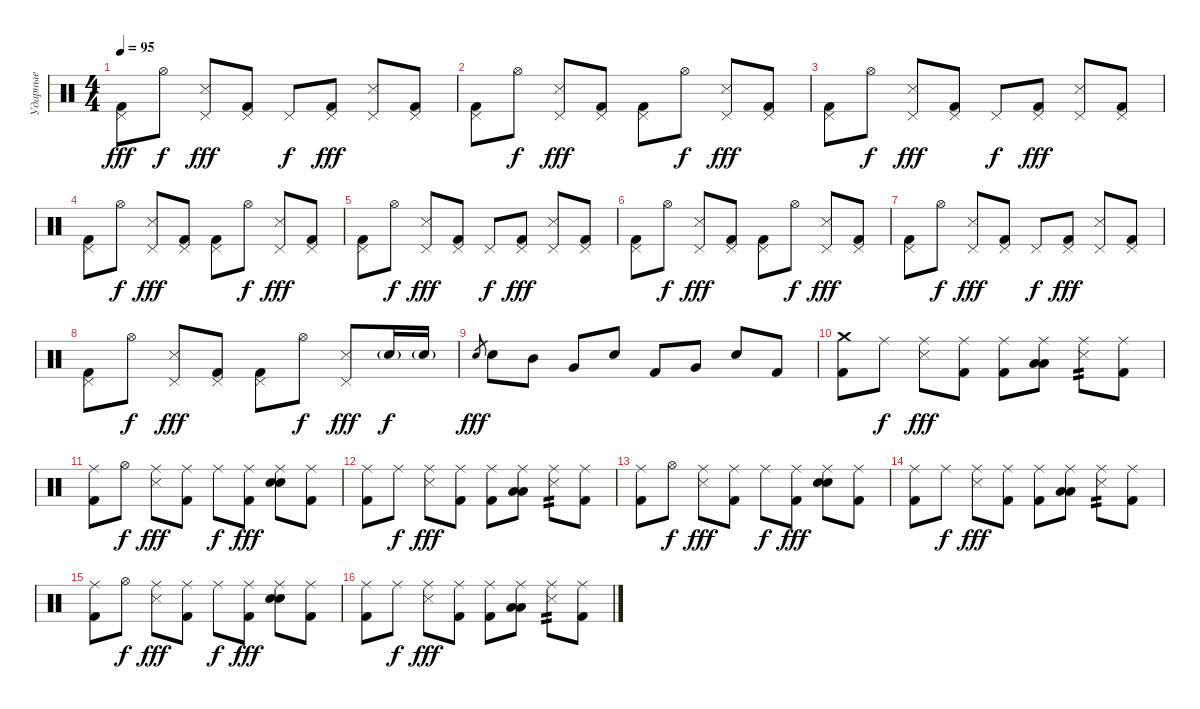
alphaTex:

\track ("Ударные" "Ударные") {instrument percussion}
\staff {score}
\articulation defaults
\ts (4 4)
\tempo 95
\clef neutral
\ks c
("Pedal Hi-Hat (hit)" "Kick (hit) 2").8{dy fff} "Hi-Hat (open)".8{dy f} ("Pedal Hi-Hat (hit)" "Snare (side stick) 3").8{dy fff} ("Pedal Hi-Hat (hit)" "Kick (hit) 2").8 "Pedal Hi-Hat (hit)".8{dy f} ("Pedal Hi-Hat (hit)" "Kick (hit) 2").8{dy fff} ("Pedal Hi-Hat (hit)" "Snare (side stick) 3").8 ("Pedal Hi-Hat (hit)" "Kick (hit) 2").8 |
("Pedal Hi-Hat (hit)" "Kick (hit) 2").8 "Hi-Hat (open)".8{dy f} ("Pedal Hi-Hat (hit)" "Snare (side stick) 3").8{dy fff} ("Pedal Hi-Hat (hit)" "Kick (hit) 2").8 ("Pedal Hi-Hat (hit)" "Kick (hit) 2").8 "Hi-Hat (open)".8{dy f} ("Pedal Hi-Hat (hit)" "Snare (side stick) 3").8{dy fff} ("Pedal Hi-Hat (hit)" "Kick (hit) 2").8 |
("Pedal Hi-Hat (hit)" "Kick (hit) 2").8 "Hi-Hat (open)".8{dy f} ("Pedal Hi-Hat (hit)" "Snare (side stick) 3").8{dy fff} ("Pedal Hi-Hat (hit)" "Kick (hit) 2").8 "Pedal Hi-Hat (hit)".8{dy f} ("Pedal Hi-Hat (hit)" "Kick (hit) 2").8{dy fff} ("Pedal Hi-Hat (hit)" "Snare (side stick) 3").8 ("Pedal Hi-Hat (hit)" "Kick (hit) 2").8 |
("Pedal Hi-Hat (hit)" "Kick (hit) 2").8 "Hi-Hat (open)".8{dy f} ("Pedal Hi-Hat (hit)" "Snare (side stick) 3").8{dy fff} ("Pedal Hi-Hat (hit)" "Kick (hit) 2").8 ("Pedal Hi-Hat (hit)" "Kick (hit) 2").8 "Hi-Hat (open)".8{dy f} ("Pedal Hi-Hat (hit)" "Snare (side stick) 3").8{dy fff} ("Pedal Hi-Hat (hit)" "Kick (hit) 2").8 |
("Pedal Hi-Hat (hit)" "Kick (hit) 2").8 "Hi-Hat (open)".8{dy f} ("Pedal Hi-Hat (hit)" "Snare (side stick) 3").8{dy fff} ("Pedal Hi-Hat (hit)" "Kick (hit) 2").8 "Pedal Hi-Hat (hit)".8{dy f} ("Pedal Hi-Hat (hit)" "Kick (hit) 2").8{dy fff} ("Pedal Hi-Hat (hit)" "Snare (side stick) 3").8 ("Pedal Hi-Hat (hit)" "Kick (hit) 2").8 |
("Pedal Hi-Hat (hit)" "Kick (hit) 2").8 "Hi-Hat (open)".8{dy f} ("Pedal Hi-Hat (hit)" "Snare (side stick) 3").8{dy fff} ("Pedal Hi-Hat (hit)" "Kick (hit) 2").8 ("Pedal Hi-Hat (hit)" "Kick (hit) 2").8 "Hi-Hat (open)".8{dy f} ("Pedal Hi-Hat (hit)" "Snare (side stick) 3").8{dy fff} ("Pedal Hi-Hat (hit)" "Kick (hit) 2").8 |
("Pedal Hi-Hat (hit)" "Kick (hit) 2").8 "Hi-Hat (open)".8{dy f} ("Pedal Hi-Hat (hit)" "Snare (side stick) 3").8{dy fff} ("Pedal Hi-Hat (hit)" "Kick (hit) 2").8 "Pedal Hi-Hat (hit)".8{dy f} ("Pedal Hi-Hat (hit)" "Kick (hit) 2").8{dy fff} ("Pedal Hi-Hat (hit)" "Snare (side stick) 3").8 ("Pedal Hi-Hat (hit)" "Kick (hit) 2").8 |
("Pedal Hi-Hat (hit)" "Kick (hit) 2").8 "Hi-Hat (open)".8{dy f} ("Pedal Hi-Hat (hit)" "Snare (side stick) 3").8{dy fff} ("Pedal Hi-Hat (hit)" "Kick (hit) 2").8 ("Pedal Hi-Hat (hit)" "Kick (hit) 2").8 "Hi-Hat (open)".8{dy f} ("Pedal Hi-Hat (hit)" "Snare (side stick) 3").8{dy fff} "Electric Snare (hit)"{g}.16{dy f} "Electric Snare (hit)"{g}.16 |
"Electric Snare (hit)".8{gr dy fff} "Electric Snare (hit)".8 "Mid Tom (hit)".8 "Very Low Tom (hit)".8 "Electric Snare (hit)".8 "Kick (hit) 2".8 "Very Low Tom (hit)".8 "Electric Snare (hit)".8 "Kick (hit) 2".8 |
("Crash medium (hit)" "Kick (hit) 2").8 "Ride (middle)".8{dy f} ("Ride (middle)" "Snare (side stick) 3").8{dy fff} ("Ride (middle)" "Kick (hit) 2").8 ("Ride (middle)" "Kick (hit) 2").8 ("Ride (middle)" "Low Tom (hit)" "Low Floor Tom (hit)").8 ("Ride (middle)" "Snare (side stick) 3").8{tp 2} ("Ride (middle)" "Kick (hit) 2").8 |
("Ride (middle)" "Kick (hit) 2").8 "Hi-Hat (open)".8{dy f} ("Ride (middle)" "Snare (side stick) 3").8{dy fff} ("Ride (middle)" "Kick (hit) 2").8 "Ride (middle)".8{dy f} ("Ride (middle)" "Kick (hit) 2").8{dy fff} ("Ride (middle)" "Electric Snare (hit)" "Snare (hit) 2").8 ("Ride (middle)" "Kick (hit) 2").8 |
("Ride (middle)" "Kick (hit) 2").8 "Ride (middle)".8{dy f} ("Ride (middle)" "Snare (side stick) 3").8{dy fff} ("Ride (middle)" "Kick (hit) 2").8 ("Ride (middle)" "Kick (hit) 2").8 ("Ride (middle)" "Low Tom (hit)" "Low Floor Tom (hit)").8 ("Ride (middle)" "Snare (side stick) 3").8{tp 2} ("Ride (middle)" "Kick (hit) 2").8 |
("Ride (middle)" "Kick (hit) 2").8 "Hi-Hat (open)".8{dy f} ("Ride (middle)" "Snare (side stick) 3").8{dy fff} ("Ride (middle)" "Kick (hit) 2").8 "Ride (middle)".8{dy f} ("Ride (middle)" "Kick (hit) 2").8{dy fff} ("Ride (middle)" "Electric Snare (hit)" "Snare (hit) 2").8 ("Ride (middle)" "Kick (hit) 2").8 |
("Ride (middle)" "Kick (hit) 2").8 "Ride (middle)".8{dy f} ("Ride (middle)" "Snare (side stick) 3").8{dy fff} ("Ride (middle)" "Kick (hit) 2").8 ("Ride (middle)" "Kick (hit) 2").8 ("Ride (middle)" "Low Tom (hit)" "Low Floor Tom (hit)").8 ("Ride (middle)" "Snare (side stick) 3").8{tp 2} ("Ride (middle)" "Kick (hit) 2").8 |
("Ride (middle)" "Kick (hit) 2").8 "Hi-Hat (open)".8{dy f} ("Ride (middle)" "Snare (side stick) 3").8{dy fff} ("Ride (middle)" "Kick (hit) 2").8 "Ride (middle)".8{dy f} ("Ride (middle)" "Kick (hit) 2").8{dy fff} ("Ride (middle)" "Electric Snare (hit)" "Snare (hit) 2").8 ("Ride (middle)" "Kick (hit) 2").8 |
("Ride (middle)" "Kick (hit) 2").8 "Ride (middle)".8{dy f} ("Ride (middle)" "Snare (side stick) 3").8{dy fff} ("Ride (middle)" "Kick (hit) 2").8 ("Ride (middle)" "Kick (hit) 2").8 ("Ride (middle)" "Low Tom (hit)" "Low Floor Tom (hit)").8 ("Ride (middle)" "Snare (side stick) 3").8{tp 2} ("Ride (middle)" "Kick (hit) 2").8
